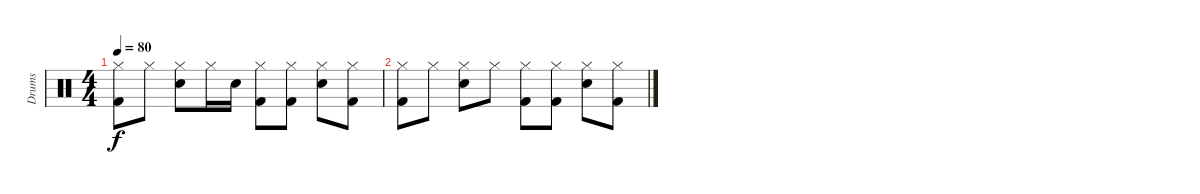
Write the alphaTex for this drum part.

\track ("Drums" "Drums") {instrument percussion}
\staff {score}
\articulation defaults
\ts (4 4)
\tempo 80
\clef neutral
\ks c
("Hi-Hat (closed)" "Kick (hit) 2").8{dy f} "Hi-Hat (closed)".8 ("Hi-Hat (closed)" "Snare (hit) 2").8 "Hi-Hat (closed)".16 "Snare (hit) 2".16 ("Hi-Hat (closed)" "Kick (hit) 2").8 ("Hi-Hat (closed)" "Kick (hit) 2").8 ("Hi-Hat (closed)" "Snare (hit) 2").8 ("Hi-Hat (closed)" "Kick (hit) 2").8 |
("Hi-Hat (closed)" "Kick (hit) 2").8 "Hi-Hat (closed)".8 ("Hi-Hat (closed)" "Snare (hit) 2").8 "Hi-Hat (closed)".8 ("Hi-Hat (closed)" "Kick (hit) 2").8 ("Hi-Hat (closed)" "Kick (hit) 2").8 ("Hi-Hat (closed)" "Snare (hit) 2").8 ("Hi-Hat (closed)" "Kick (hit) 2").8
